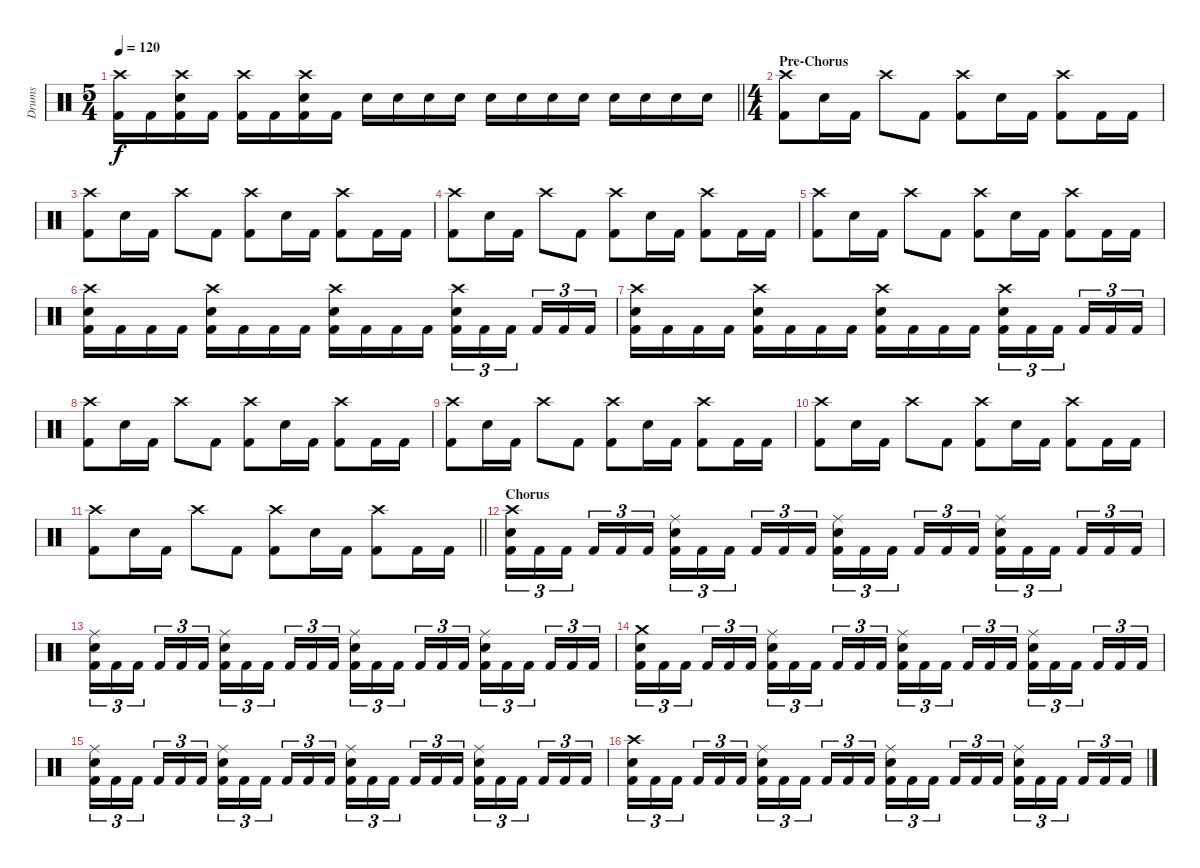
\track ("Drums" "Drums") {instrument percussion}
\staff {score}
\articulation defaults
\ts (5 4)
\tempo 120
\clef neutral
\barLineRight lightlight
\ks c
("Crash high (hit)" "Kick (hit) 2").16{dy f} "Kick (hit) 2".16 ("Crash high (hit)" "Electric Snare (hit)" "Kick (hit) 2").16 "Kick (hit) 2".16 ("Crash high (hit)" "Kick (hit) 2").16 "Kick (hit) 2".16 ("Crash high (hit)" "Electric Snare (hit)" "Kick (hit) 2").16 "Kick (hit) 2".16 "Electric Snare (hit)".16 "Electric Snare (hit)".16 "Electric Snare (hit)".16 "Electric Snare (hit)".16 "Electric Snare (hit)".16 "Electric Snare (hit)".16 "Electric Snare (hit)".16 "Electric Snare (hit)".16 "Electric Snare (hit)".16 "Electric Snare (hit)".16 "Electric Snare (hit)".16 "Electric Snare (hit)".16 |
\ts (4 4)
\section ("" "Pre-Chorus")
("Crash high (hit)" "Kick (hit) 2").8 "Electric Snare (hit)".16 "Kick (hit) 2".16 "Crash high (hit)".8 "Kick (hit) 2".8 ("Crash high (hit)" "Kick (hit) 2").8 "Electric Snare (hit)".16 "Kick (hit) 2".16 ("Crash high (hit)" "Kick (hit) 2").8 "Kick (hit) 2".16 "Kick (hit) 2".16 |
("Crash high (hit)" "Kick (hit) 2").8 "Electric Snare (hit)".16 "Kick (hit) 2".16 "Crash high (hit)".8 "Kick (hit) 2".8 ("Crash high (hit)" "Kick (hit) 2").8 "Electric Snare (hit)".16 "Kick (hit) 2".16 ("Crash high (hit)" "Kick (hit) 2").8 "Kick (hit) 2".16 "Kick (hit) 2".16 |
("Crash high (hit)" "Kick (hit) 2").8 "Electric Snare (hit)".16 "Kick (hit) 2".16 "Crash high (hit)".8 "Kick (hit) 2".8 ("Crash high (hit)" "Kick (hit) 2").8 "Electric Snare (hit)".16 "Kick (hit) 2".16 ("Crash high (hit)" "Kick (hit) 2").8 "Kick (hit) 2".16 "Kick (hit) 2".16 |
("Crash high (hit)" "Kick (hit) 2").8 "Electric Snare (hit)".16 "Kick (hit) 2".16 "Crash high (hit)".8 "Kick (hit) 2".8 ("Crash high (hit)" "Kick (hit) 2").8 "Electric Snare (hit)".16 "Kick (hit) 2".16 ("Crash high (hit)" "Kick (hit) 2").8 "Kick (hit) 2".16 "Kick (hit) 2".16 |
("Crash high (hit)" "Electric Snare (hit)" "Kick (hit) 2").16 "Kick (hit) 2".16 "Kick (hit) 2".16 "Kick (hit) 2".16 ("Crash high (hit)" "Electric Snare (hit)" "Kick (hit) 2").16 "Kick (hit) 2".16 "Kick (hit) 2".16 "Kick (hit) 2".16 ("Crash high (hit)" "Electric Snare (hit)" "Kick (hit) 2").16 "Kick (hit) 2".16 "Kick (hit) 2".16 "Kick (hit) 2".16 ("Crash high (hit)" "Electric Snare (hit)" "Kick (hit) 2").16{tu (3 2)} "Kick (hit) 2".16{tu (3 2)} "Kick (hit) 2".16{tu (3 2)} "Kick (hit) 2".16{tu (3 2)} "Kick (hit) 2".16{tu (3 2)} "Kick (hit) 2".16{tu (3 2)} |
("Crash high (hit)" "Electric Snare (hit)" "Kick (hit) 2").16 "Kick (hit) 2".16 "Kick (hit) 2".16 "Kick (hit) 2".16 ("Crash high (hit)" "Electric Snare (hit)" "Kick (hit) 2").16 "Kick (hit) 2".16 "Kick (hit) 2".16 "Kick (hit) 2".16 ("Crash high (hit)" "Electric Snare (hit)" "Kick (hit) 2").16 "Kick (hit) 2".16 "Kick (hit) 2".16 "Kick (hit) 2".16 ("Crash high (hit)" "Electric Snare (hit)" "Kick (hit) 2").16{tu (3 2)} "Kick (hit) 2".16{tu (3 2)} "Kick (hit) 2".16{tu (3 2)} "Kick (hit) 2".16{tu (3 2)} "Kick (hit) 2".16{tu (3 2)} "Kick (hit) 2".16{tu (3 2)} |
("Crash high (hit)" "Kick (hit) 2").8 "Electric Snare (hit)".16 "Kick (hit) 2".16 "Crash high (hit)".8 "Kick (hit) 2".8 ("Crash high (hit)" "Kick (hit) 2").8 "Electric Snare (hit)".16 "Kick (hit) 2".16 ("Crash high (hit)" "Kick (hit) 2").8 "Kick (hit) 2".16 "Kick (hit) 2".16 |
("Crash high (hit)" "Kick (hit) 2").8 "Electric Snare (hit)".16 "Kick (hit) 2".16 "Crash high (hit)".8 "Kick (hit) 2".8 ("Crash high (hit)" "Kick (hit) 2").8 "Electric Snare (hit)".16 "Kick (hit) 2".16 ("Crash high (hit)" "Kick (hit) 2").8 "Kick (hit) 2".16 "Kick (hit) 2".16 |
("Crash high (hit)" "Kick (hit) 2").8 "Electric Snare (hit)".16 "Kick (hit) 2".16 "Crash high (hit)".8 "Kick (hit) 2".8 ("Crash high (hit)" "Kick (hit) 2").8 "Electric Snare (hit)".16 "Kick (hit) 2".16 ("Crash high (hit)" "Kick (hit) 2").8 "Kick (hit) 2".16 "Kick (hit) 2".16 |
\barLineRight lightlight
("Crash high (hit)" "Kick (hit) 2").8 "Electric Snare (hit)".16 "Kick (hit) 2".16 "Crash high (hit)".8 "Kick (hit) 2".8 ("Crash high (hit)" "Kick (hit) 2").8 "Electric Snare (hit)".16 "Kick (hit) 2".16 ("Crash high (hit)" "Kick (hit) 2").8 "Kick (hit) 2".16 "Kick (hit) 2".16 |
\section ("" "Chorus")
("Crash high (hit)" "Electric Snare (hit)" "Kick (hit) 2").16{tu (3 2)} "Kick (hit) 2".16{tu (3 2)} "Kick (hit) 2".16{tu (3 2)} "Kick (hit) 2".16{tu (3 2)} "Kick (hit) 2".16{tu (3 2)} "Kick (hit) 2".16{tu (3 2)} ("Ride (middle)" "Electric Snare (hit)" "Kick (hit) 2").16{tu (3 2)} "Kick (hit) 2".16{tu (3 2)} "Kick (hit) 2".16{tu (3 2)} "Kick (hit) 2".16{tu (3 2)} "Kick (hit) 2".16{tu (3 2)} "Kick (hit) 2".16{tu (3 2)} ("Ride (middle)" "Electric Snare (hit)" "Kick (hit) 2").16{tu (3 2)} "Kick (hit) 2".16{tu (3 2)} "Kick (hit) 2".16{tu (3 2)} "Kick (hit) 2".16{tu (3 2)} "Kick (hit) 2".16{tu (3 2)} "Kick (hit) 2".16{tu (3 2)} ("Ride (middle)" "Electric Snare (hit)" "Kick (hit) 2").16{tu (3 2)} "Kick (hit) 2".16{tu (3 2)} "Kick (hit) 2".16{tu (3 2)} "Kick (hit) 2".16{tu (3 2)} "Kick (hit) 2".16{tu (3 2)} "Kick (hit) 2".16{tu (3 2)} |
("Ride (middle)" "Electric Snare (hit)" "Kick (hit) 2").16{tu (3 2)} "Kick (hit) 2".16{tu (3 2)} "Kick (hit) 2".16{tu (3 2)} "Kick (hit) 2".16{tu (3 2)} "Kick (hit) 2".16{tu (3 2)} "Kick (hit) 2".16{tu (3 2)} ("Ride (middle)" "Electric Snare (hit)" "Kick (hit) 2").16{tu (3 2)} "Kick (hit) 2".16{tu (3 2)} "Kick (hit) 2".16{tu (3 2)} "Kick (hit) 2".16{tu (3 2)} "Kick (hit) 2".16{tu (3 2)} "Kick (hit) 2".16{tu (3 2)} ("Ride (middle)" "Electric Snare (hit)" "Kick (hit) 2").16{tu (3 2)} "Kick (hit) 2".16{tu (3 2)} "Kick (hit) 2".16{tu (3 2)} "Kick (hit) 2".16{tu (3 2)} "Kick (hit) 2".16{tu (3 2)} "Kick (hit) 2".16{tu (3 2)} ("Ride (middle)" "Electric Snare (hit)" "Kick (hit) 2").16{tu (3 2)} "Kick (hit) 2".16{tu (3 2)} "Kick (hit) 2".16{tu (3 2)} "Kick (hit) 2".16{tu (3 2)} "Kick (hit) 2".16{tu (3 2)} "Kick (hit) 2".16{tu (3 2)} |
("Crash medium (hit)" "Electric Snare (hit)" "Kick (hit) 2").16{tu (3 2)} "Kick (hit) 2".16{tu (3 2)} "Kick (hit) 2".16{tu (3 2)} "Kick (hit) 2".16{tu (3 2)} "Kick (hit) 2".16{tu (3 2)} "Kick (hit) 2".16{tu (3 2)} ("Ride (middle)" "Electric Snare (hit)" "Kick (hit) 2").16{tu (3 2)} "Kick (hit) 2".16{tu (3 2)} "Kick (hit) 2".16{tu (3 2)} "Kick (hit) 2".16{tu (3 2)} "Kick (hit) 2".16{tu (3 2)} "Kick (hit) 2".16{tu (3 2)} ("Ride (middle)" "Electric Snare (hit)" "Kick (hit) 2").16{tu (3 2)} "Kick (hit) 2".16{tu (3 2)} "Kick (hit) 2".16{tu (3 2)} "Kick (hit) 2".16{tu (3 2)} "Kick (hit) 2".16{tu (3 2)} "Kick (hit) 2".16{tu (3 2)} ("Ride (middle)" "Electric Snare (hit)" "Kick (hit) 2").16{tu (3 2)} "Kick (hit) 2".16{tu (3 2)} "Kick (hit) 2".16{tu (3 2)} "Kick (hit) 2".16{tu (3 2)} "Kick (hit) 2".16{tu (3 2)} "Kick (hit) 2".16{tu (3 2)} |
("Ride (middle)" "Electric Snare (hit)" "Kick (hit) 2").16{tu (3 2)} "Kick (hit) 2".16{tu (3 2)} "Kick (hit) 2".16{tu (3 2)} "Kick (hit) 2".16{tu (3 2)} "Kick (hit) 2".16{tu (3 2)} "Kick (hit) 2".16{tu (3 2)} ("Ride (middle)" "Electric Snare (hit)" "Kick (hit) 2").16{tu (3 2)} "Kick (hit) 2".16{tu (3 2)} "Kick (hit) 2".16{tu (3 2)} "Kick (hit) 2".16{tu (3 2)} "Kick (hit) 2".16{tu (3 2)} "Kick (hit) 2".16{tu (3 2)} ("Ride (middle)" "Electric Snare (hit)" "Kick (hit) 2").16{tu (3 2)} "Kick (hit) 2".16{tu (3 2)} "Kick (hit) 2".16{tu (3 2)} "Kick (hit) 2".16{tu (3 2)} "Kick (hit) 2".16{tu (3 2)} "Kick (hit) 2".16{tu (3 2)} ("Ride (middle)" "Electric Snare (hit)" "Kick (hit) 2").16{tu (3 2)} "Kick (hit) 2".16{tu (3 2)} "Kick (hit) 2".16{tu (3 2)} "Kick (hit) 2".16{tu (3 2)} "Kick (hit) 2".16{tu (3 2)} "Kick (hit) 2".16{tu (3 2)} |
("Crash high (hit)" "Electric Snare (hit)" "Kick (hit) 2").16{tu (3 2)} "Kick (hit) 2".16{tu (3 2)} "Kick (hit) 2".16{tu (3 2)} "Kick (hit) 2".16{tu (3 2)} "Kick (hit) 2".16{tu (3 2)} "Kick (hit) 2".16{tu (3 2)} ("Ride (middle)" "Electric Snare (hit)" "Kick (hit) 2").16{tu (3 2)} "Kick (hit) 2".16{tu (3 2)} "Kick (hit) 2".16{tu (3 2)} "Kick (hit) 2".16{tu (3 2)} "Kick (hit) 2".16{tu (3 2)} "Kick (hit) 2".16{tu (3 2)} ("Ride (middle)" "Electric Snare (hit)" "Kick (hit) 2").16{tu (3 2)} "Kick (hit) 2".16{tu (3 2)} "Kick (hit) 2".16{tu (3 2)} "Kick (hit) 2".16{tu (3 2)} "Kick (hit) 2".16{tu (3 2)} "Kick (hit) 2".16{tu (3 2)} ("Ride (middle)" "Electric Snare (hit)" "Kick (hit) 2").16{tu (3 2)} "Kick (hit) 2".16{tu (3 2)} "Kick (hit) 2".16{tu (3 2)} "Kick (hit) 2".16{tu (3 2)} "Kick (hit) 2".16{tu (3 2)} "Kick (hit) 2".16{tu (3 2)}
